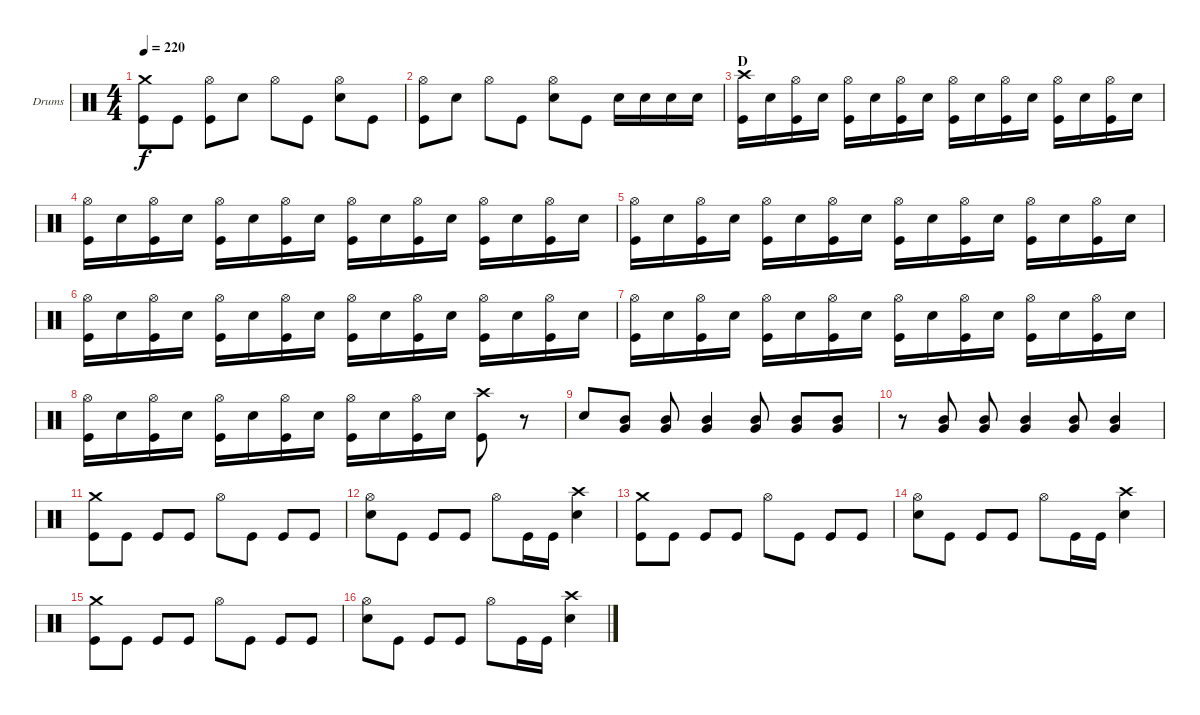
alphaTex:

\bracketExtendMode groupsimilarinstruments
\firstSystemTrackNameOrientation horizontal
\otherSystemsTrackNameOrientation horizontal
\track ("Drumkit" "Drums") {instrument percussion}
\staff {score}
\articulation defaults
\ts (4 4)
\tempo 220
\clef neutral
\scale
0.451977
\ks c
("Crash medium (hit)" "Kick (hit)").8{dy f} "Kick (hit)".8 ("Hi-Hat (open)" "Kick (hit)").8 "Snare (hit) 2".8 "Hi-Hat (open)".8 "Kick (hit)".8 ("Hi-Hat (open)" "Snare (hit) 2").8 "Kick (hit)".8 |
\scale
0.548023 ("Hi-Hat (open)" "Kick (hit)").8 "Snare (hit) 2".8 "Hi-Hat (open)".8 "Kick (hit)".8 ("Hi-Hat (open)" "Snare (hit) 2").8 "Kick (hit)".8 "Snare (hit) 2".16 "Snare (hit) 2".16 "Snare (hit) 2".16 "Snare (hit) 2".16 |
\section ("" "D")
\scale
0.5 ("Kick (hit)" "Crash high (hit)").16 "Snare (hit) 2".16 ("Kick (hit)" "Hi-Hat (open)").16 "Snare (hit) 2".16 ("Kick (hit)" "Hi-Hat (open)").16 "Snare (hit) 2".16 ("Kick (hit)" "Hi-Hat (open)").16 "Snare (hit) 2".16 ("Kick (hit)" "Hi-Hat (open)").16 "Snare (hit) 2".16 ("Kick (hit)" "Hi-Hat (open)").16 "Snare (hit) 2".16 ("Kick (hit)" "Hi-Hat (open)").16 "Snare (hit) 2".16 ("Kick (hit)" "Hi-Hat (open)").16 "Snare (hit) 2".16 |
\scale
0.5 ("Kick (hit)" "Hi-Hat (open)").16 "Snare (hit) 2".16 ("Kick (hit)" "Hi-Hat (open)").16 "Snare (hit) 2".16 ("Kick (hit)" "Hi-Hat (open)").16 "Snare (hit) 2".16 ("Kick (hit)" "Hi-Hat (open)").16 "Snare (hit) 2".16 ("Kick (hit)" "Hi-Hat (open)").16 "Snare (hit) 2".16 ("Kick (hit)" "Hi-Hat (open)").16 "Snare (hit) 2".16 ("Kick (hit)" "Hi-Hat (open)").16 "Snare (hit) 2".16 ("Kick (hit)" "Hi-Hat (open)").16 "Snare (hit) 2".16 |
\scale
0.5 ("Kick (hit)" "Hi-Hat (open)").16 "Snare (hit) 2".16 ("Kick (hit)" "Hi-Hat (open)").16 "Snare (hit) 2".16 ("Kick (hit)" "Hi-Hat (open)").16 "Snare (hit) 2".16 ("Kick (hit)" "Hi-Hat (open)").16 "Snare (hit) 2".16 ("Kick (hit)" "Hi-Hat (open)").16 "Snare (hit) 2".16 ("Kick (hit)" "Hi-Hat (open)").16 "Snare (hit) 2".16 ("Kick (hit)" "Hi-Hat (open)").16 "Snare (hit) 2".16 ("Kick (hit)" "Hi-Hat (open)").16 "Snare (hit) 2".16 |
\scale
0.5 ("Kick (hit)" "Hi-Hat (open)").16 "Snare (hit) 2".16 ("Kick (hit)" "Hi-Hat (open)").16 "Snare (hit) 2".16 ("Kick (hit)" "Hi-Hat (open)").16 "Snare (hit) 2".16 ("Kick (hit)" "Hi-Hat (open)").16 "Snare (hit) 2".16 ("Kick (hit)" "Hi-Hat (open)").16 "Snare (hit) 2".16 ("Kick (hit)" "Hi-Hat (open)").16 "Snare (hit) 2".16 ("Kick (hit)" "Hi-Hat (open)").16 "Snare (hit) 2".16 ("Kick (hit)" "Hi-Hat (open)").16 "Snare (hit) 2".16 |
\scale
0.518828 ("Kick (hit)" "Hi-Hat (open)").16 "Snare (hit) 2".16 ("Kick (hit)" "Hi-Hat (open)").16 "Snare (hit) 2".16 ("Kick (hit)" "Hi-Hat (open)").16 "Snare (hit) 2".16 ("Kick (hit)" "Hi-Hat (open)").16 "Snare (hit) 2".16 ("Kick (hit)" "Hi-Hat (open)").16 "Snare (hit) 2".16 ("Kick (hit)" "Hi-Hat (open)").16 "Snare (hit) 2".16 ("Kick (hit)" "Hi-Hat (open)").16 "Snare (hit) 2".16 ("Kick (hit)" "Hi-Hat (open)").16 "Snare (hit) 2".16 |
\scale
0.481172 ("Kick (hit)" "Hi-Hat (open)").16 "Snare (hit) 2".16 ("Kick (hit)" "Hi-Hat (open)").16 "Snare (hit) 2".16 ("Kick (hit)" "Hi-Hat (open)").16 "Snare (hit) 2".16 ("Kick (hit)" "Hi-Hat (open)").16 "Snare (hit) 2".16 ("Kick (hit)" "Hi-Hat (open)").16 "Snare (hit) 2".16 ("Kick (hit)" "Hi-Hat (open)").16 "Snare (hit) 2".16 ("Crash high (hit)" "Kick (hit)").8 r.8 |
\scale
0.517241 "Snare (hit) 2".8 ("Mid Tom (hit)" "Very Low Tom (hit)").8 ("Mid Tom (hit)" "Very Low Tom (hit)").8 ("Mid Tom (hit)" "Very Low Tom (hit)").4 ("Mid Tom (hit)" "Very Low Tom (hit)").8 ("Mid Tom (hit)" "Very Low Tom (hit)").8 ("Mid Tom (hit)" "Very Low Tom (hit)").8 |
\scale
0.482759 r.8 ("Mid Tom (hit)" "Very Low Tom (hit)").8 ("Mid Tom (hit)" "Very Low Tom (hit)").8 ("Mid Tom (hit)" "Very Low Tom (hit)").4 ("Mid Tom (hit)" "Very Low Tom (hit)").8 ("Mid Tom (hit)" "Very Low Tom (hit)").4 |
\scale
0.667752 ("Crash medium (hit)" "Kick (hit)").8 "Kick (hit)".8 "Kick (hit)".8 "Kick (hit)".8 "Hi-Hat (open)".8 "Kick (hit)".8 "Kick (hit)".8 "Kick (hit)".8 |
\scale
0.522388 ("Hi-Hat (open)" "Snare (hit) 2").8 "Kick (hit)".8 "Kick (hit)".8 "Kick (hit)".8 "Hi-Hat (open)".8 "Kick (hit)".16 "Kick (hit)".16 ("Crash high (hit)" "Snare (hit) 2").4 |
\scale
0.477612 ("Crash medium (hit)" "Kick (hit)").8 "Kick (hit)".8 "Kick (hit)".8 "Kick (hit)".8 "Hi-Hat (open)".8 "Kick (hit)".8 "Kick (hit)".8 "Kick (hit)".8 |
\scale
0.522388 ("Hi-Hat (open)" "Snare (hit) 2").8 "Kick (hit)".8 "Kick (hit)".8 "Kick (hit)".8 "Hi-Hat (open)".8 "Kick (hit)".16 "Kick (hit)".16 ("Crash high (hit)" "Snare (hit) 2").4 |
\scale
0.477612 ("Crash medium (hit)" "Kick (hit)").8 "Kick (hit)".8 "Kick (hit)".8 "Kick (hit)".8 "Hi-Hat (open)".8 "Kick (hit)".8 "Kick (hit)".8 "Kick (hit)".8 |
\scale
0.486111 ("Hi-Hat (open)" "Snare (hit) 2").8 "Kick (hit)".8 "Kick (hit)".8 "Kick (hit)".8 "Hi-Hat (open)".8 "Kick (hit)".16 "Kick (hit)".16 ("Crash high (hit)" "Snare (hit) 2").4
